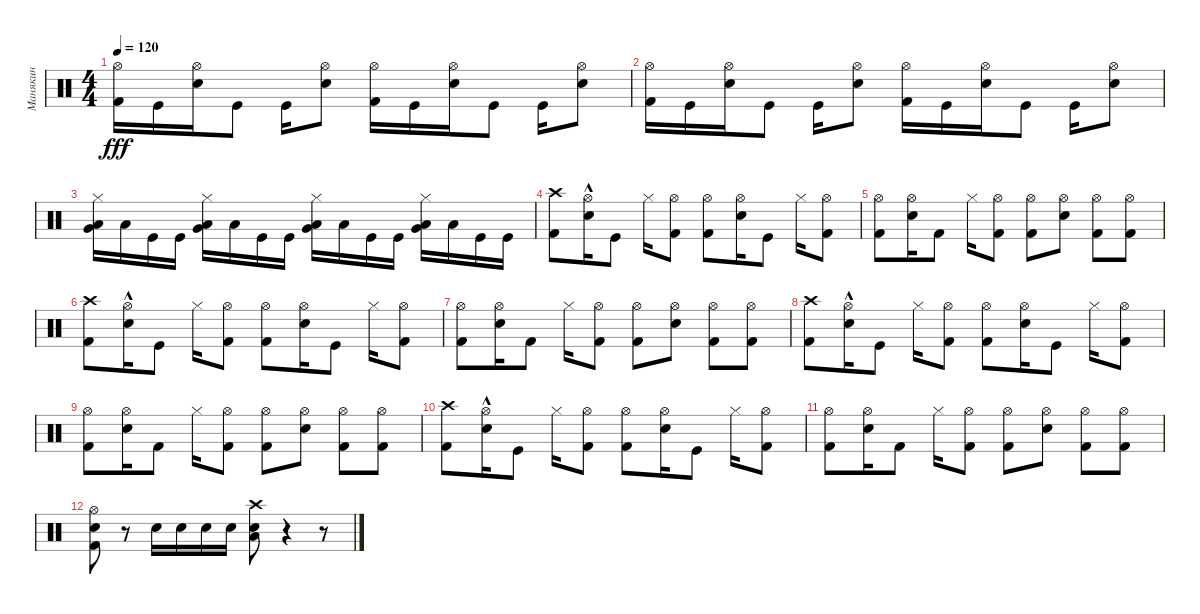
\track ("Манякин" "Манякин") {instrument percussion}
\staff {score}
\articulation defaults
\ts (4 4)
\tempo 120
\clef neutral
\ks c
("Hi-Hat (open)" "Kick (hit) 2").16{dy fff} "Kick (hit)".16 ("Hi-Hat (open)" "Snare (hit) 2").16 "Kick (hit)".8 "Kick (hit)".16 ("Hi-Hat (open)" "Snare (hit) 2").8 ("Kick (hit) 2" "Hi-Hat (open)").16 "Kick (hit)".16 ("Hi-Hat (open)" "Snare (hit) 2").16 "Kick (hit)".8 "Kick (hit)".16 ("Hi-Hat (open)" "Snare (hit) 2").8 |
("Hi-Hat (open)" "Kick (hit) 2").16 "Kick (hit)".16 ("Hi-Hat (open)" "Snare (hit) 2").16 "Kick (hit)".8 "Kick (hit)".16 ("Hi-Hat (open)" "Snare (hit) 2").8 ("Kick (hit) 2" "Hi-Hat (open)").16 "Kick (hit)".16 ("Hi-Hat (open)" "Snare (hit) 2").16 "Kick (hit)".8 "Kick (hit)".16 ("Hi-Hat (open)" "Snare (hit) 2").8 |
("Hi-Hat (closed)" "Low Floor Tom (hit)" "Very Low Tom (hit)").16 "Low Floor Tom (hit)".16 "Kick (hit)".16 "Kick (hit)".16 ("Hi-Hat (closed)" "Low Floor Tom (hit)" "Very Low Tom (hit)").16 "Low Floor Tom (hit)".16 "Kick (hit)".16 "Kick (hit)".16 ("Hi-Hat (closed)" "Low Tom (hit)" "Very Low Tom (hit)").16 "Low Floor Tom (hit)".16 "Kick (hit)".16 "Kick (hit)".16 ("Hi-Hat (closed)" "Very Low Tom (hit)" "Low Tom (hit)").16 "Low Floor Tom (hit)".16 "Kick (hit)".16 "Kick (hit)".16 |
("Crash high (hit)" "Kick (hit) 2").8 ("Hi-Hat (open)"{hac} "Snare (hit) 2").16 "Kick (hit)".8 "Hi-Hat (closed)".16 ("Hi-Hat (open)" "Kick (hit) 2").8 ("Hi-Hat (open)" "Kick (hit) 2").8 ("Hi-Hat (open)" "Snare (hit) 2").16 "Kick (hit)".8 "Hi-Hat (closed)".16 ("Kick (hit) 2" "Hi-Hat (open)").8 |
("Hi-Hat (open)" "Kick (hit) 2").8 ("Hi-Hat (open)" "Snare (hit) 2").16 "Kick (hit) 2".8 "Hi-Hat (closed)".16 ("Hi-Hat (open)" "Kick (hit) 2").8 ("Kick (hit) 2" "Hi-Hat (open)").8 ("Hi-Hat (open)" "Snare (hit) 2").8 ("Hi-Hat (open)" "Kick (hit) 2").8 ("Hi-Hat (open)" "Kick (hit) 2").8 |
("Crash high (hit)" "Kick (hit) 2").8 ("Hi-Hat (open)"{hac} "Snare (hit) 2").16 "Kick (hit)".8 "Hi-Hat (closed)".16 ("Hi-Hat (open)" "Kick (hit) 2").8 ("Hi-Hat (open)" "Kick (hit) 2").8 ("Hi-Hat (open)" "Snare (hit) 2").16 "Kick (hit)".8 "Hi-Hat (closed)".16 ("Kick (hit) 2" "Hi-Hat (open)").8 |
("Hi-Hat (open)" "Kick (hit) 2").8 ("Hi-Hat (open)" "Snare (hit) 2").16 "Kick (hit) 2".8 "Hi-Hat (closed)".16 ("Hi-Hat (open)" "Kick (hit) 2").8 ("Kick (hit) 2" "Hi-Hat (open)").8 ("Hi-Hat (open)" "Snare (hit) 2").8 ("Hi-Hat (open)" "Kick (hit) 2").8 ("Hi-Hat (open)" "Kick (hit) 2").8 |
("Crash high (hit)" "Kick (hit) 2").8 ("Hi-Hat (open)"{hac} "Snare (hit) 2").16 "Kick (hit)".8 "Hi-Hat (closed)".16 ("Hi-Hat (open)" "Kick (hit) 2").8 ("Hi-Hat (open)" "Kick (hit) 2").8 ("Hi-Hat (open)" "Snare (hit) 2").16 "Kick (hit)".8 "Hi-Hat (closed)".16 ("Kick (hit) 2" "Hi-Hat (open)").8 |
("Hi-Hat (open)" "Kick (hit) 2").8 ("Hi-Hat (open)" "Snare (hit) 2").16 "Kick (hit) 2".8 "Hi-Hat (closed)".16 ("Hi-Hat (open)" "Kick (hit) 2").8 ("Kick (hit) 2" "Hi-Hat (open)").8 ("Hi-Hat (open)" "Snare (hit) 2").8 ("Hi-Hat (open)" "Kick (hit) 2").8 ("Hi-Hat (open)" "Kick (hit) 2").8 |
("Crash high (hit)" "Kick (hit) 2").8 ("Hi-Hat (open)"{hac} "Snare (hit) 2").16 "Kick (hit)".8 "Hi-Hat (closed)".16 ("Hi-Hat (open)" "Kick (hit) 2").8 ("Hi-Hat (open)" "Kick (hit) 2").8 ("Hi-Hat (open)" "Snare (hit) 2").16 "Kick (hit)".8 "Hi-Hat (closed)".16 ("Kick (hit) 2" "Hi-Hat (open)").8 |
("Hi-Hat (open)" "Kick (hit) 2").8 ("Hi-Hat (open)" "Snare (hit) 2").16 "Kick (hit) 2".8 "Hi-Hat (closed)".16 ("Hi-Hat (open)" "Kick (hit) 2").8 ("Kick (hit) 2" "Hi-Hat (open)").8 ("Hi-Hat (open)" "Snare (hit) 2").8 ("Hi-Hat (open)" "Kick (hit) 2").8 ("Hi-Hat (open)" "Kick (hit) 2").8 |
("Hi-Hat (open)" "Snare (hit) 2" "Kick (hit) 2").8 r.8 "Snare (hit) 2".16 "Electric Snare (hit)".16 "Snare (hit) 2".16 "Electric Snare (hit)".16 ("Crash high (hit)" "Low Floor Tom (hit)" "Electric Snare (hit)").8 r.4 r.8
